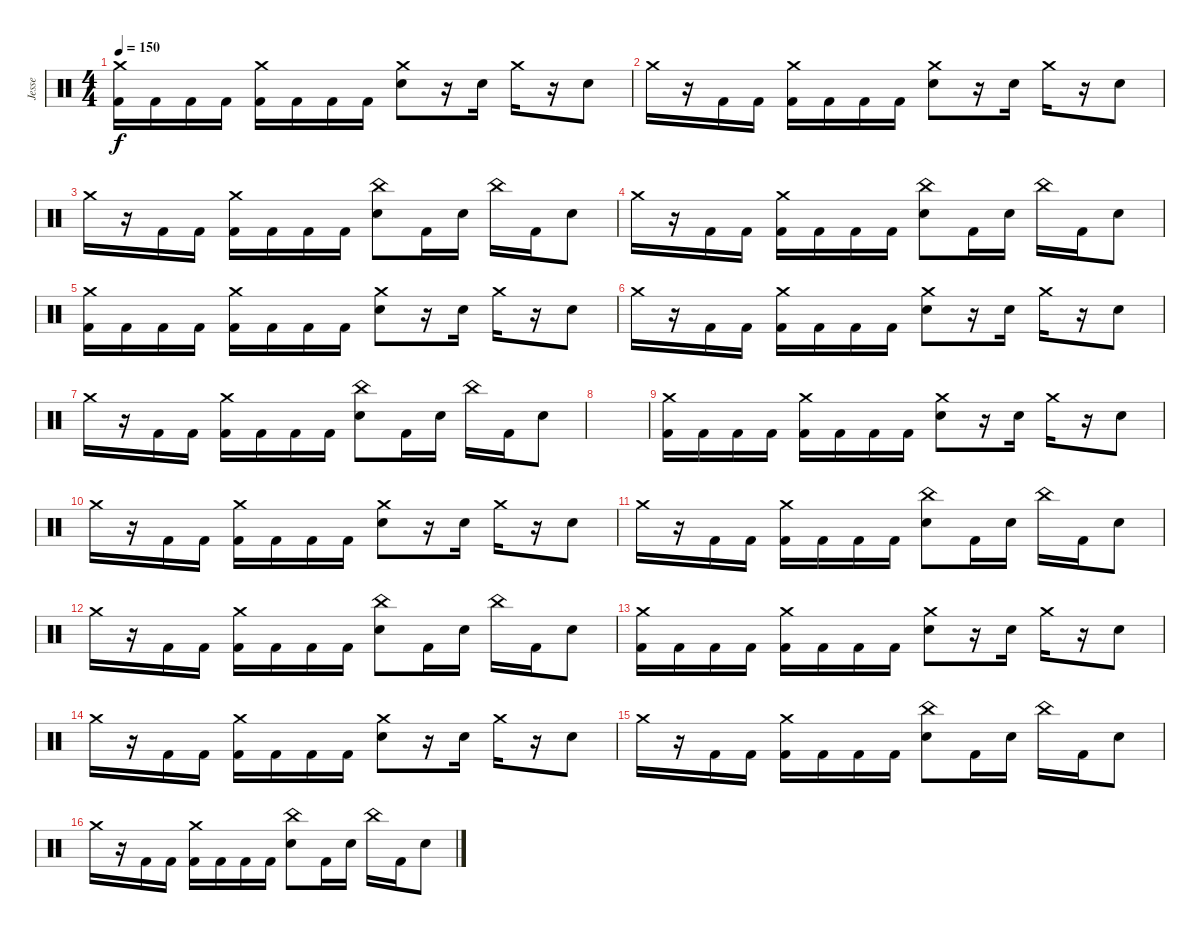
\track ("Jesse" "Jesse") {instrument percussion}
\staff {score}
\articulation defaults
\ts (4 4)
\tempo 150
\clef neutral
\ks c
("Crash medium (hit)" "Kick (hit) 2").16{dy f} "Kick (hit) 2".16 "Kick (hit) 2".16 "Kick (hit) 2".16 ("Crash medium (hit)" "Kick (hit) 2").16 "Kick (hit) 2".16 "Kick (hit) 2".16 "Kick (hit) 2".16 ("Crash medium (hit)" "Electric Snare (hit)").8 r.16 "Electric Snare (hit)".16 "Crash medium (hit)".16 r.16 "Electric Snare (hit)".8 |
"Crash medium (hit)".16 r.16 "Kick (hit) 2".16 "Kick (hit) 2".16 ("Crash medium (hit)" "Kick (hit) 2").16 "Kick (hit) 2".16 "Kick (hit) 2".16 "Kick (hit) 2".16 ("Crash medium (hit)" "Electric Snare (hit)").8 r.16 "Electric Snare (hit)".16 "Crash medium (hit)".16 r.16 "Electric Snare (hit)".8 |
"Crash medium (hit)".16 r.16 "Kick (hit) 2".16 "Kick (hit) 2".16 ("Crash medium (hit)" "Kick (hit) 2").16 "Kick (hit) 2".16 "Kick (hit) 2".16 "Kick (hit) 2".16 ("China (hit)" "Electric Snare (hit)").8 "Kick (hit) 2".16 "Electric Snare (hit)".16 "China (hit)".16 "Kick (hit) 2".16 "Electric Snare (hit)".8 |
"Crash medium (hit)".16 r.16 "Kick (hit) 2".16 "Kick (hit) 2".16 ("Crash medium (hit)" "Kick (hit) 2").16 "Kick (hit) 2".16 "Kick (hit) 2".16 "Kick (hit) 2".16 ("China (hit)" "Electric Snare (hit)").8 "Kick (hit) 2".16 "Electric Snare (hit)".16 "China (hit)".16 "Kick (hit) 2".16 "Electric Snare (hit)".8 |
("Crash medium (hit)" "Kick (hit) 2").16 "Kick (hit) 2".16 "Kick (hit) 2".16 "Kick (hit) 2".16 ("Crash medium (hit)" "Kick (hit) 2").16 "Kick (hit) 2".16 "Kick (hit) 2".16 "Kick (hit) 2".16 ("Crash medium (hit)" "Electric Snare (hit)").8 r.16 "Electric Snare (hit)".16 "Crash medium (hit)".16 r.16 "Electric Snare (hit)".8 |
"Crash medium (hit)".16 r.16 "Kick (hit) 2".16 "Kick (hit) 2".16 ("Crash medium (hit)" "Kick (hit) 2").16 "Kick (hit) 2".16 "Kick (hit) 2".16 "Kick (hit) 2".16 ("Crash medium (hit)" "Electric Snare (hit)").8 r.16 "Electric Snare (hit)".16 "Crash medium (hit)".16 r.16 "Electric Snare (hit)".8 |
"Crash medium (hit)".16 r.16 "Kick (hit) 2".16 "Kick (hit) 2".16 ("Crash medium (hit)" "Kick (hit) 2").16 "Kick (hit) 2".16 "Kick (hit) 2".16 "Kick (hit) 2".16 ("China (hit)" "Electric Snare (hit)").8 "Kick (hit) 2".16 "Electric Snare (hit)".16 "China (hit)".16 "Kick (hit) 2".16 "Electric Snare (hit)".8 |
|
("Crash medium (hit)" "Kick (hit) 2").16 "Kick (hit) 2".16 "Kick (hit) 2".16 "Kick (hit) 2".16 ("Crash medium (hit)" "Kick (hit) 2").16 "Kick (hit) 2".16 "Kick (hit) 2".16 "Kick (hit) 2".16 ("Crash medium (hit)" "Electric Snare (hit)").8 r.16 "Electric Snare (hit)".16 "Crash medium (hit)".16 r.16 "Electric Snare (hit)".8 |
"Crash medium (hit)".16 r.16 "Kick (hit) 2".16 "Kick (hit) 2".16 ("Crash medium (hit)" "Kick (hit) 2").16 "Kick (hit) 2".16 "Kick (hit) 2".16 "Kick (hit) 2".16 ("Crash medium (hit)" "Electric Snare (hit)").8 r.16 "Electric Snare (hit)".16 "Crash medium (hit)".16 r.16 "Electric Snare (hit)".8 |
"Crash medium (hit)".16 r.16 "Kick (hit) 2".16 "Kick (hit) 2".16 ("Crash medium (hit)" "Kick (hit) 2").16 "Kick (hit) 2".16 "Kick (hit) 2".16 "Kick (hit) 2".16 ("China (hit)" "Electric Snare (hit)").8 "Kick (hit) 2".16 "Electric Snare (hit)".16 "China (hit)".16 "Kick (hit) 2".16 "Electric Snare (hit)".8 |
"Crash medium (hit)".16 r.16 "Kick (hit) 2".16 "Kick (hit) 2".16 ("Crash medium (hit)" "Kick (hit) 2").16 "Kick (hit) 2".16 "Kick (hit) 2".16 "Kick (hit) 2".16 ("China (hit)" "Electric Snare (hit)").8 "Kick (hit) 2".16 "Electric Snare (hit)".16 "China (hit)".16 "Kick (hit) 2".16 "Electric Snare (hit)".8 |
("Crash medium (hit)" "Kick (hit) 2").16 "Kick (hit) 2".16 "Kick (hit) 2".16 "Kick (hit) 2".16 ("Crash medium (hit)" "Kick (hit) 2").16 "Kick (hit) 2".16 "Kick (hit) 2".16 "Kick (hit) 2".16 ("Crash medium (hit)" "Electric Snare (hit)").8 r.16 "Electric Snare (hit)".16 "Crash medium (hit)".16 r.16 "Electric Snare (hit)".8 |
"Crash medium (hit)".16 r.16 "Kick (hit) 2".16 "Kick (hit) 2".16 ("Crash medium (hit)" "Kick (hit) 2").16 "Kick (hit) 2".16 "Kick (hit) 2".16 "Kick (hit) 2".16 ("Crash medium (hit)" "Electric Snare (hit)").8 r.16 "Electric Snare (hit)".16 "Crash medium (hit)".16 r.16 "Electric Snare (hit)".8 |
"Crash medium (hit)".16 r.16 "Kick (hit) 2".16 "Kick (hit) 2".16 ("Crash medium (hit)" "Kick (hit) 2").16 "Kick (hit) 2".16 "Kick (hit) 2".16 "Kick (hit) 2".16 ("China (hit)" "Electric Snare (hit)").8 "Kick (hit) 2".16 "Electric Snare (hit)".16 "China (hit)".16 "Kick (hit) 2".16 "Electric Snare (hit)".8 |
"Crash medium (hit)".16 r.16 "Kick (hit) 2".16 "Kick (hit) 2".16 ("Crash medium (hit)" "Kick (hit) 2").16 "Kick (hit) 2".16 "Kick (hit) 2".16 "Kick (hit) 2".16 ("China (hit)" "Electric Snare (hit)").8 "Kick (hit) 2".16 "Electric Snare (hit)".16 "China (hit)".16 "Kick (hit) 2".16 "Electric Snare (hit)".8
